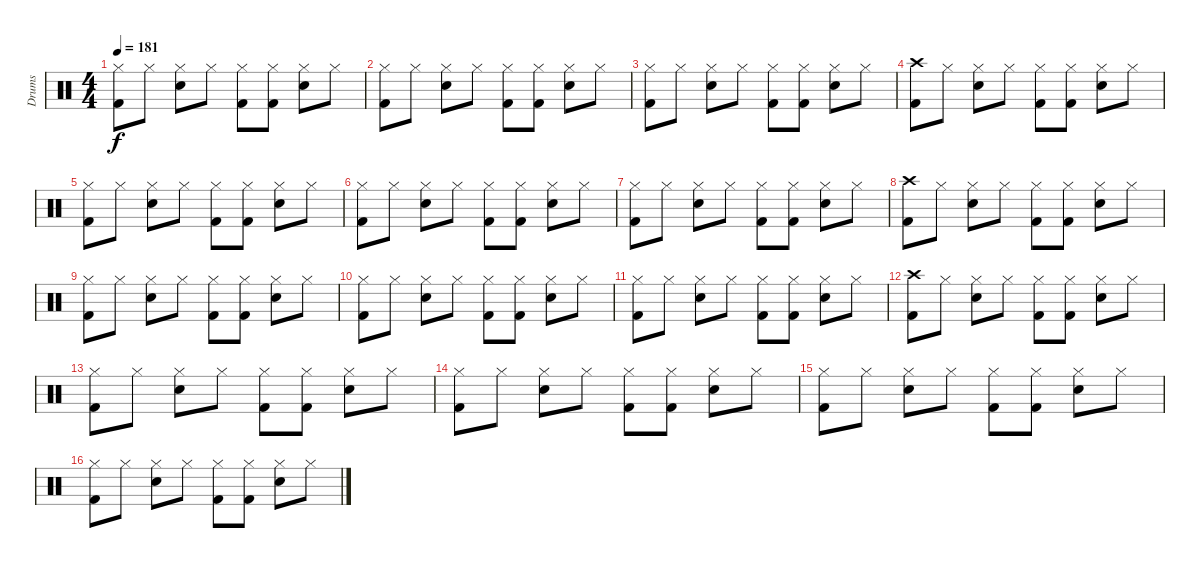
\track ("Drums" "Drums") {instrument percussion}
\staff {score}
\articulation defaults
\ts (4 4)
\tempo 181
\clef neutral
\ks c
("Hi-Hat (closed)" "Kick (hit) 2").8{dy f} "Hi-Hat (closed)".8 ("Hi-Hat (closed)" "Snare (hit) 2").8 "Hi-Hat (closed)".8 ("Hi-Hat (closed)" "Kick (hit) 2").8 ("Hi-Hat (closed)" "Kick (hit) 2").8 ("Hi-Hat (closed)" "Snare (hit) 2").8 "Hi-Hat (closed)".8 |
("Hi-Hat (closed)" "Kick (hit) 2").8 "Hi-Hat (closed)".8 ("Hi-Hat (closed)" "Snare (hit) 2").8 "Hi-Hat (closed)".8 ("Hi-Hat (closed)" "Kick (hit) 2").8 ("Hi-Hat (closed)" "Kick (hit) 2").8 ("Hi-Hat (closed)" "Snare (hit) 2").8 "Hi-Hat (closed)".8 |
("Hi-Hat (closed)" "Kick (hit) 2").8 "Hi-Hat (closed)".8 ("Hi-Hat (closed)" "Snare (hit) 2").8 "Hi-Hat (closed)".8 ("Hi-Hat (closed)" "Kick (hit) 2").8 ("Hi-Hat (closed)" "Kick (hit) 2").8 ("Hi-Hat (closed)" "Snare (hit) 2").8 "Hi-Hat (closed)".8 |
("Crash high (hit)" "Kick (hit) 2").8 "Hi-Hat (closed)".8 ("Hi-Hat (closed)" "Snare (hit) 2").8 "Hi-Hat (closed)".8 ("Hi-Hat (closed)" "Kick (hit) 2").8 ("Hi-Hat (closed)" "Kick (hit) 2").8 ("Hi-Hat (closed)" "Snare (hit) 2").8 "Hi-Hat (closed)".8 |
("Hi-Hat (closed)" "Kick (hit) 2").8 "Hi-Hat (closed)".8 ("Hi-Hat (closed)" "Snare (hit) 2").8 "Hi-Hat (closed)".8 ("Hi-Hat (closed)" "Kick (hit) 2").8 ("Hi-Hat (closed)" "Kick (hit) 2").8 ("Hi-Hat (closed)" "Snare (hit) 2").8 "Hi-Hat (closed)".8 |
("Hi-Hat (closed)" "Kick (hit) 2").8 "Hi-Hat (closed)".8 ("Hi-Hat (closed)" "Snare (hit) 2").8 "Hi-Hat (closed)".8 ("Hi-Hat (closed)" "Kick (hit) 2").8 ("Hi-Hat (closed)" "Kick (hit) 2").8 ("Hi-Hat (closed)" "Snare (hit) 2").8 "Hi-Hat (closed)".8 |
("Hi-Hat (closed)" "Kick (hit) 2").8 "Hi-Hat (closed)".8 ("Hi-Hat (closed)" "Snare (hit) 2").8 "Hi-Hat (closed)".8 ("Hi-Hat (closed)" "Kick (hit) 2").8 ("Hi-Hat (closed)" "Kick (hit) 2").8 ("Hi-Hat (closed)" "Snare (hit) 2").8 "Hi-Hat (closed)".8 |
("Crash high (hit)" "Kick (hit) 2").8 "Hi-Hat (closed)".8 ("Hi-Hat (closed)" "Snare (hit) 2").8 "Hi-Hat (closed)".8 ("Hi-Hat (closed)" "Kick (hit) 2").8 ("Hi-Hat (closed)" "Kick (hit) 2").8 ("Hi-Hat (closed)" "Snare (hit) 2").8 "Hi-Hat (closed)".8 |
("Hi-Hat (closed)" "Kick (hit) 2").8 "Hi-Hat (closed)".8 ("Hi-Hat (closed)" "Snare (hit) 2").8 "Hi-Hat (closed)".8 ("Hi-Hat (closed)" "Kick (hit) 2").8 ("Hi-Hat (closed)" "Kick (hit) 2").8 ("Hi-Hat (closed)" "Snare (hit) 2").8 "Hi-Hat (closed)".8 |
("Hi-Hat (closed)" "Kick (hit) 2").8 "Hi-Hat (closed)".8 ("Hi-Hat (closed)" "Snare (hit) 2").8 "Hi-Hat (closed)".8 ("Hi-Hat (closed)" "Kick (hit) 2").8 ("Hi-Hat (closed)" "Kick (hit) 2").8 ("Hi-Hat (closed)" "Snare (hit) 2").8 "Hi-Hat (closed)".8 |
("Hi-Hat (closed)" "Kick (hit) 2").8 "Hi-Hat (closed)".8 ("Hi-Hat (closed)" "Snare (hit) 2").8 "Hi-Hat (closed)".8 ("Hi-Hat (closed)" "Kick (hit) 2").8 ("Hi-Hat (closed)" "Kick (hit) 2").8 ("Hi-Hat (closed)" "Snare (hit) 2").8 "Hi-Hat (closed)".8 |
("Crash high (hit)" "Kick (hit) 2").8 "Hi-Hat (closed)".8 ("Hi-Hat (closed)" "Snare (hit) 2").8 "Hi-Hat (closed)".8 ("Hi-Hat (closed)" "Kick (hit) 2").8 ("Hi-Hat (closed)" "Kick (hit) 2").8 ("Hi-Hat (closed)" "Snare (hit) 2").8 "Hi-Hat (closed)".8 |
("Hi-Hat (closed)" "Kick (hit) 2").8 "Hi-Hat (closed)".8 ("Hi-Hat (closed)" "Snare (hit) 2").8 "Hi-Hat (closed)".8 ("Hi-Hat (closed)" "Kick (hit) 2").8 ("Hi-Hat (closed)" "Kick (hit) 2").8 ("Hi-Hat (closed)" "Snare (hit) 2").8 "Hi-Hat (closed)".8 |
("Hi-Hat (closed)" "Kick (hit) 2").8 "Hi-Hat (closed)".8 ("Hi-Hat (closed)" "Snare (hit) 2").8 "Hi-Hat (closed)".8 ("Hi-Hat (closed)" "Kick (hit) 2").8 ("Hi-Hat (closed)" "Kick (hit) 2").8 ("Hi-Hat (closed)" "Snare (hit) 2").8 "Hi-Hat (closed)".8 |
("Hi-Hat (closed)" "Kick (hit) 2").8 "Hi-Hat (closed)".8 ("Hi-Hat (closed)" "Snare (hit) 2").8 "Hi-Hat (closed)".8 ("Hi-Hat (closed)" "Kick (hit) 2").8 ("Hi-Hat (closed)" "Kick (hit) 2").8 ("Hi-Hat (closed)" "Snare (hit) 2").8 "Hi-Hat (closed)".8 |
("Hi-Hat (closed)" "Kick (hit) 2").8 "Hi-Hat (closed)".8 ("Hi-Hat (closed)" "Snare (hit) 2").8 "Hi-Hat (closed)".8 ("Hi-Hat (closed)" "Kick (hit) 2").8 ("Hi-Hat (closed)" "Kick (hit) 2").8 ("Hi-Hat (closed)" "Snare (hit) 2").8 "Hi-Hat (closed)".8
